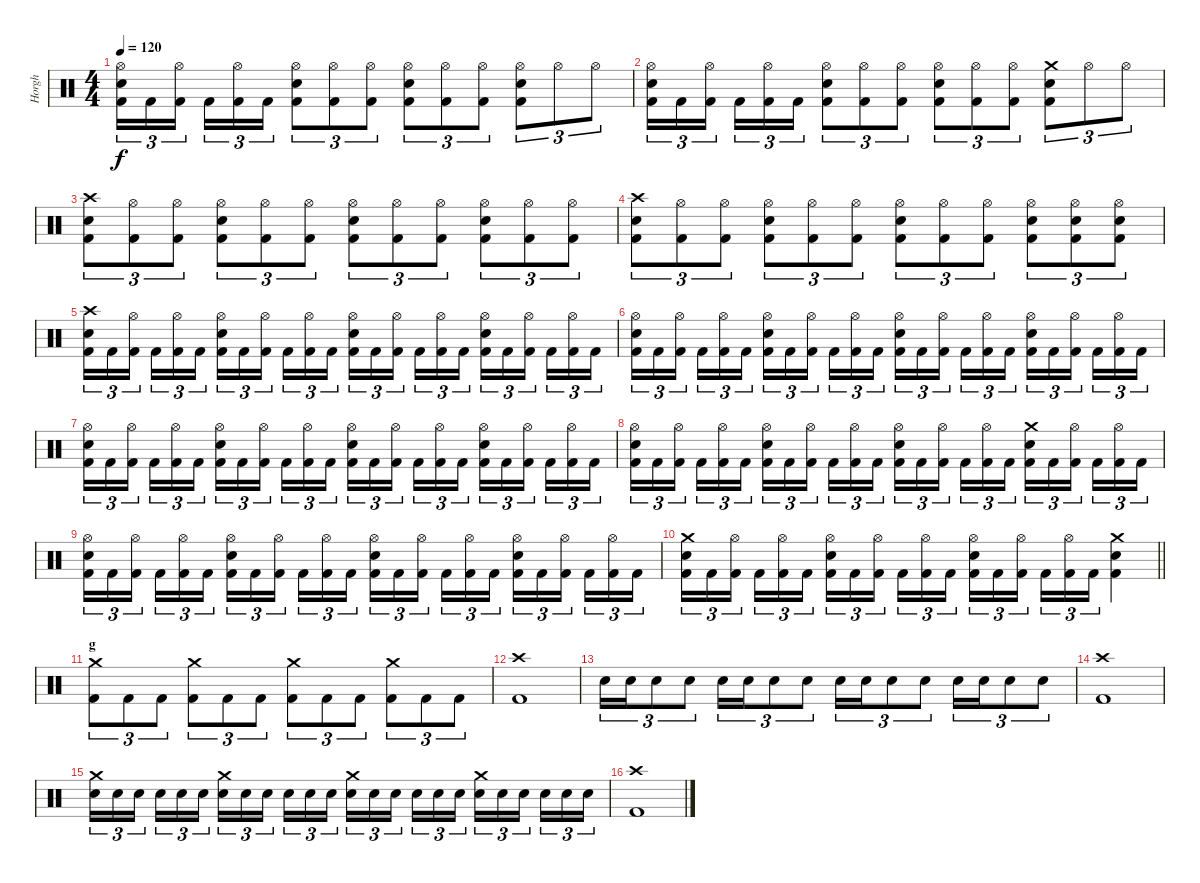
\track ("Horgh" "Horgh") {instrument percussion}
\staff {score}
\articulation defaults
\ts (4 4)
\tempo 120
\clef neutral
\ks c
("Hi-Hat (open)" "Electric Snare (hit)" "Kick (hit) 2").16{tu (3 2) dy f} "Kick (hit) 2".16{tu (3 2)} ("Hi-Hat (open)" "Kick (hit) 2").16{tu (3 2) beam splitsecondary} "Kick (hit) 2".16{tu (3 2)} ("Hi-Hat (open)" "Kick (hit) 2").16{tu (3 2)} "Kick (hit) 2".16{tu (3 2)} ("Hi-Hat (open)" "Electric Snare (hit)" "Kick (hit) 2").8{tu (3 2)} ("Hi-Hat (open)" "Kick (hit) 2").8{tu (3 2)} ("Hi-Hat (open)" "Kick (hit) 2").8{tu (3 2)} ("Hi-Hat (open)" "Electric Snare (hit)" "Kick (hit) 2").8{tu (3 2)} ("Hi-Hat (open)" "Kick (hit) 2").8{tu (3 2)} ("Hi-Hat (open)" "Kick (hit) 2").8{tu (3 2)} ("Hi-Hat (open)" "Electric Snare (hit)" "Kick (hit) 2").8{tu (3 2)} "Hi-Hat (open)".8{tu (3 2)} "Hi-Hat (open)".8{tu (3 2)} |
("Hi-Hat (open)" "Electric Snare (hit)" "Kick (hit) 2").16{tu (3 2)} "Kick (hit) 2".16{tu (3 2)} ("Hi-Hat (open)" "Kick (hit) 2").16{tu (3 2) beam splitsecondary} "Kick (hit) 2".16{tu (3 2)} ("Hi-Hat (open)" "Kick (hit) 2").16{tu (3 2)} "Kick (hit) 2".16{tu (3 2)} ("Hi-Hat (open)" "Electric Snare (hit)" "Kick (hit) 2").8{tu (3 2)} ("Hi-Hat (open)" "Kick (hit) 2").8{tu (3 2)} ("Hi-Hat (open)" "Kick (hit) 2").8{tu (3 2)} ("Hi-Hat (open)" "Electric Snare (hit)" "Kick (hit) 2").8{tu (3 2)} ("Hi-Hat (open)" "Kick (hit) 2").8{tu (3 2)} ("Hi-Hat (open)" "Kick (hit) 2").8{tu (3 2)} ("Crash medium (hit)" "Electric Snare (hit)" "Kick (hit) 2").8{tu (3 2)} "Hi-Hat (open)".8{tu (3 2)} "Hi-Hat (open)".8{tu (3 2)} |
("Crash high (hit)" "Electric Snare (hit)" "Kick (hit) 2").8{tu (3 2)} ("Hi-Hat (open)" "Kick (hit) 2").8{tu (3 2)} ("Hi-Hat (open)" "Kick (hit) 2").8{tu (3 2)} ("Hi-Hat (open)" "Electric Snare (hit)" "Kick (hit) 2").8{tu (3 2)} ("Hi-Hat (open)" "Kick (hit) 2").8{tu (3 2)} ("Hi-Hat (open)" "Kick (hit) 2").8{tu (3 2)} ("Hi-Hat (open)" "Electric Snare (hit)" "Kick (hit) 2").8{tu (3 2)} ("Hi-Hat (open)" "Kick (hit) 2").8{tu (3 2)} ("Hi-Hat (open)" "Kick (hit) 2").8{tu (3 2)} ("Hi-Hat (open)" "Electric Snare (hit)" "Kick (hit) 2").8{tu (3 2)} ("Hi-Hat (open)" "Kick (hit) 2").8{tu (3 2)} ("Hi-Hat (open)" "Kick (hit) 2").8{tu (3 2)} |
("Crash high (hit)" "Electric Snare (hit)" "Kick (hit) 2").8{tu (3 2)} ("Hi-Hat (open)" "Kick (hit) 2").8{tu (3 2)} ("Hi-Hat (open)" "Kick (hit) 2").8{tu (3 2)} ("Hi-Hat (open)" "Electric Snare (hit)" "Kick (hit) 2").8{tu (3 2)} ("Hi-Hat (open)" "Kick (hit) 2").8{tu (3 2)} ("Hi-Hat (open)" "Kick (hit) 2").8{tu (3 2)} ("Hi-Hat (open)" "Electric Snare (hit)" "Kick (hit) 2").8{tu (3 2)} ("Hi-Hat (open)" "Kick (hit) 2").8{tu (3 2)} ("Hi-Hat (open)" "Kick (hit) 2").8{tu (3 2)} ("Hi-Hat (open)" "Electric Snare (hit)" "Kick (hit) 2").8{tu (3 2)} ("Hi-Hat (open)" "Electric Snare (hit)" "Kick (hit) 2").8{tu (3 2)} ("Hi-Hat (open)" "Electric Snare (hit)" "Kick (hit) 2").8{tu (3 2)} |
("Crash high (hit)" "Electric Snare (hit)" "Kick (hit) 2").16{tu (3 2)} "Kick (hit) 2".16{tu (3 2)} ("Hi-Hat (open)" "Kick (hit) 2").16{tu (3 2) beam splitsecondary} "Kick (hit) 2".16{tu (3 2)} ("Hi-Hat (open)" "Kick (hit) 2").16{tu (3 2)} "Kick (hit) 2".16{tu (3 2)} ("Hi-Hat (open)" "Electric Snare (hit)" "Kick (hit) 2").16{tu (3 2)} "Kick (hit) 2".16{tu (3 2)} ("Hi-Hat (open)" "Kick (hit) 2").16{tu (3 2) beam splitsecondary} "Kick (hit) 2".16{tu (3 2)} ("Hi-Hat (open)" "Kick (hit) 2").16{tu (3 2)} "Kick (hit) 2".16{tu (3 2)} ("Hi-Hat (open)" "Electric Snare (hit)" "Kick (hit) 2").16{tu (3 2)} "Kick (hit) 2".16{tu (3 2)} ("Hi-Hat (open)" "Kick (hit) 2").16{tu (3 2) beam splitsecondary} "Kick (hit) 2".16{tu (3 2)} ("Hi-Hat (open)" "Kick (hit) 2").16{tu (3 2)} "Kick (hit) 2".16{tu (3 2)} ("Hi-Hat (open)" "Electric Snare (hit)" "Kick (hit) 2").16{tu (3 2)} "Kick (hit) 2".16{tu (3 2)} ("Hi-Hat (open)" "Kick (hit) 2").16{tu (3 2) beam splitsecondary} "Kick (hit) 2".16{tu (3 2)} ("Hi-Hat (open)" "Kick (hit) 2").16{tu (3 2)} "Kick (hit) 2".16{tu (3 2)} |
("Hi-Hat (open)" "Electric Snare (hit)" "Kick (hit) 2").16{tu (3 2)} "Kick (hit) 2".16{tu (3 2)} ("Hi-Hat (open)" "Kick (hit) 2").16{tu (3 2) beam splitsecondary} "Kick (hit) 2".16{tu (3 2)} ("Hi-Hat (open)" "Kick (hit) 2").16{tu (3 2)} "Kick (hit) 2".16{tu (3 2)} ("Hi-Hat (open)" "Electric Snare (hit)" "Kick (hit) 2").16{tu (3 2)} "Kick (hit) 2".16{tu (3 2)} ("Hi-Hat (open)" "Kick (hit) 2").16{tu (3 2) beam splitsecondary} "Kick (hit) 2".16{tu (3 2)} ("Hi-Hat (open)" "Kick (hit) 2").16{tu (3 2)} "Kick (hit) 2".16{tu (3 2)} ("Hi-Hat (open)" "Electric Snare (hit)" "Kick (hit) 2").16{tu (3 2)} "Kick (hit) 2".16{tu (3 2)} ("Hi-Hat (open)" "Kick (hit) 2").16{tu (3 2) beam splitsecondary} "Kick (hit) 2".16{tu (3 2)} ("Hi-Hat (open)" "Kick (hit) 2").16{tu (3 2)} "Kick (hit) 2".16{tu (3 2)} ("Hi-Hat (open)" "Electric Snare (hit)" "Kick (hit) 2").16{tu (3 2)} "Kick (hit) 2".16{tu (3 2)} ("Hi-Hat (open)" "Kick (hit) 2").16{tu (3 2) beam splitsecondary} "Kick (hit) 2".16{tu (3 2)} ("Hi-Hat (open)" "Kick (hit) 2").16{tu (3 2)} "Kick (hit) 2".16{tu (3 2)} |
("Hi-Hat (open)" "Electric Snare (hit)" "Kick (hit) 2").16{tu (3 2)} "Kick (hit) 2".16{tu (3 2)} ("Hi-Hat (open)" "Kick (hit) 2").16{tu (3 2) beam splitsecondary} "Kick (hit) 2".16{tu (3 2)} ("Hi-Hat (open)" "Kick (hit) 2").16{tu (3 2)} "Kick (hit) 2".16{tu (3 2)} ("Hi-Hat (open)" "Electric Snare (hit)" "Kick (hit) 2").16{tu (3 2)} "Kick (hit) 2".16{tu (3 2)} ("Hi-Hat (open)" "Kick (hit) 2").16{tu (3 2) beam splitsecondary} "Kick (hit) 2".16{tu (3 2)} ("Hi-Hat (open)" "Kick (hit) 2").16{tu (3 2)} "Kick (hit) 2".16{tu (3 2)} ("Hi-Hat (open)" "Electric Snare (hit)" "Kick (hit) 2").16{tu (3 2)} "Kick (hit) 2".16{tu (3 2)} ("Hi-Hat (open)" "Kick (hit) 2").16{tu (3 2) beam splitsecondary} "Kick (hit) 2".16{tu (3 2)} ("Hi-Hat (open)" "Kick (hit) 2").16{tu (3 2)} "Kick (hit) 2".16{tu (3 2)} ("Hi-Hat (open)" "Electric Snare (hit)" "Kick (hit) 2").16{tu (3 2)} "Kick (hit) 2".16{tu (3 2)} ("Hi-Hat (open)" "Kick (hit) 2").16{tu (3 2) beam splitsecondary} "Kick (hit) 2".16{tu (3 2)} ("Hi-Hat (open)" "Kick (hit) 2").16{tu (3 2)} "Kick (hit) 2".16{tu (3 2)} |
("Hi-Hat (open)" "Electric Snare (hit)" "Kick (hit) 2").16{tu (3 2)} "Kick (hit) 2".16{tu (3 2)} ("Hi-Hat (open)" "Kick (hit) 2").16{tu (3 2) beam splitsecondary} "Kick (hit) 2".16{tu (3 2)} ("Hi-Hat (open)" "Kick (hit) 2").16{tu (3 2)} "Kick (hit) 2".16{tu (3 2)} ("Hi-Hat (open)" "Electric Snare (hit)" "Kick (hit) 2").16{tu (3 2)} "Kick (hit) 2".16{tu (3 2)} ("Hi-Hat (open)" "Kick (hit) 2").16{tu (3 2) beam splitsecondary} "Kick (hit) 2".16{tu (3 2)} ("Hi-Hat (open)" "Kick (hit) 2").16{tu (3 2)} "Kick (hit) 2".16{tu (3 2)} ("Hi-Hat (open)" "Electric Snare (hit)" "Kick (hit) 2").16{tu (3 2)} "Kick (hit) 2".16{tu (3 2)} ("Hi-Hat (open)" "Kick (hit) 2").16{tu (3 2) beam splitsecondary} "Kick (hit) 2".16{tu (3 2)} ("Hi-Hat (open)" "Kick (hit) 2").16{tu (3 2)} "Kick (hit) 2".16{tu (3 2)} ("Crash medium (hit)" "Electric Snare (hit)" "Kick (hit) 2").16{tu (3 2)} "Kick (hit) 2".16{tu (3 2)} ("Hi-Hat (open)" "Kick (hit) 2").16{tu (3 2) beam splitsecondary} "Kick (hit) 2".16{tu (3 2)} ("Hi-Hat (open)" "Kick (hit) 2").16{tu (3 2)} "Kick (hit) 2".16{tu (3 2)} |
("Hi-Hat (open)" "Electric Snare (hit)" "Kick (hit) 2").16{tu (3 2)} "Kick (hit) 2".16{tu (3 2)} ("Hi-Hat (open)" "Kick (hit) 2").16{tu (3 2) beam splitsecondary} "Kick (hit) 2".16{tu (3 2)} ("Hi-Hat (open)" "Kick (hit) 2").16{tu (3 2)} "Kick (hit) 2".16{tu (3 2)} ("Hi-Hat (open)" "Electric Snare (hit)" "Kick (hit) 2").16{tu (3 2)} "Kick (hit) 2".16{tu (3 2)} ("Hi-Hat (open)" "Kick (hit) 2").16{tu (3 2) beam splitsecondary} "Kick (hit) 2".16{tu (3 2)} ("Hi-Hat (open)" "Kick (hit) 2").16{tu (3 2)} "Kick (hit) 2".16{tu (3 2)} ("Hi-Hat (open)" "Electric Snare (hit)" "Kick (hit) 2").16{tu (3 2)} "Kick (hit) 2".16{tu (3 2)} ("Hi-Hat (open)" "Kick (hit) 2").16{tu (3 2) beam splitsecondary} "Kick (hit) 2".16{tu (3 2)} ("Hi-Hat (open)" "Kick (hit) 2").16{tu (3 2)} "Kick (hit) 2".16{tu (3 2)} ("Hi-Hat (open)" "Electric Snare (hit)" "Kick (hit) 2").16{tu (3 2)} "Kick (hit) 2".16{tu (3 2)} ("Hi-Hat (open)" "Kick (hit) 2").16{tu (3 2) beam splitsecondary} "Kick (hit) 2".16{tu (3 2)} ("Hi-Hat (open)" "Kick (hit) 2").16{tu (3 2)} "Kick (hit) 2".16{tu (3 2)} |
\barLineRight lightlight
("Crash medium (hit)" "Electric Snare (hit)" "Kick (hit) 2").16{tu (3 2)} "Kick (hit) 2".16{tu (3 2)} ("Hi-Hat (open)" "Kick (hit) 2").16{tu (3 2) beam splitsecondary} "Kick (hit) 2".16{tu (3 2)} ("Hi-Hat (open)" "Kick (hit) 2").16{tu (3 2)} "Kick (hit) 2".16{tu (3 2)} ("Hi-Hat (open)" "Electric Snare (hit)" "Kick (hit) 2").16{tu (3 2)} "Kick (hit) 2".16{tu (3 2)} ("Hi-Hat (open)" "Kick (hit) 2").16{tu (3 2) beam splitsecondary} "Kick (hit) 2".16{tu (3 2)} ("Hi-Hat (open)" "Kick (hit) 2").16{tu (3 2)} "Kick (hit) 2".16{tu (3 2)} ("Hi-Hat (open)" "Electric Snare (hit)" "Kick (hit) 2").16{tu (3 2)} "Kick (hit) 2".16{tu (3 2)} ("Hi-Hat (open)" "Kick (hit) 2").16{tu (3 2) beam splitsecondary} "Kick (hit) 2".16{tu (3 2)} ("Hi-Hat (open)" "Kick (hit) 2").16{tu (3 2)} "Kick (hit) 2".16{tu (3 2)} ("Crash medium (hit)" "Electric Snare (hit)" "Kick (hit) 2").4 |
\section ("" "g")
("Crash medium (hit)" "Kick (hit) 2").8{tu (3 2)} "Kick (hit) 2".8{tu (3 2)} "Kick (hit) 2".8{tu (3 2)} ("Crash medium (hit)" "Kick (hit) 2").8{tu (3 2)} "Kick (hit) 2".8{tu (3 2)} "Kick (hit) 2".8{tu (3 2)} ("Crash medium (hit)" "Kick (hit) 2").8{tu (3 2)} "Kick (hit) 2".8{tu (3 2)} "Kick (hit) 2".8{tu (3 2)} ("Crash medium (hit)" "Kick (hit) 2").8{tu (3 2)} "Kick (hit) 2".8{tu (3 2)} "Kick (hit) 2".8{tu (3 2)} |
("Crash high (hit)" "Kick (hit) 2").1 |
"Electric Snare (hit)".16{tu (3 2)} "Electric Snare (hit)".16{tu (3 2)} "Electric Snare (hit)".8{tu (3 2)} "Electric Snare (hit)".8{tu (3 2)} "Electric Snare (hit)".16{tu (3 2)} "Electric Snare (hit)".16{tu (3 2)} "Electric Snare (hit)".8{tu (3 2)} "Electric Snare (hit)".8{tu (3 2)} "Electric Snare (hit)".16{tu (3 2)} "Electric Snare (hit)".16{tu (3 2)} "Electric Snare (hit)".8{tu (3 2)} "Electric Snare (hit)".8{tu (3 2)} "Electric Snare (hit)".16{tu (3 2)} "Electric Snare (hit)".16{tu (3 2)} "Electric Snare (hit)".8{tu (3 2)} "Electric Snare (hit)".8{tu (3 2)} |
("Crash high (hit)" "Kick (hit) 2").1 |
("Crash medium (hit)" "Electric Snare (hit)").16{tu (3 2)} "Electric Snare (hit)".16{tu (3 2)} "Electric Snare (hit)".16{tu (3 2) beam splitsecondary} "Electric Snare (hit)".16{tu (3 2)} "Electric Snare (hit)".16{tu (3 2)} "Electric Snare (hit)".16{tu (3 2)} ("Crash medium (hit)" "Electric Snare (hit)").16{tu (3 2)} "Electric Snare (hit)".16{tu (3 2)} "Electric Snare (hit)".16{tu (3 2) beam splitsecondary} "Electric Snare (hit)".16{tu (3 2)} "Electric Snare (hit)".16{tu (3 2)} "Electric Snare (hit)".16{tu (3 2)} ("Crash medium (hit)" "Electric Snare (hit)").16{tu (3 2)} "Electric Snare (hit)".16{tu (3 2)} "Electric Snare (hit)".16{tu (3 2) beam splitsecondary} "Electric Snare (hit)".16{tu (3 2)} "Electric Snare (hit)".16{tu (3 2)} "Electric Snare (hit)".16{tu (3 2)} ("Crash medium (hit)" "Electric Snare (hit)").16{tu (3 2)} "Electric Snare (hit)".16{tu (3 2)} "Electric Snare (hit)".16{tu (3 2) beam splitsecondary} "Electric Snare (hit)".16{tu (3 2)} "Electric Snare (hit)".16{tu (3 2)} "Electric Snare (hit)".16{tu (3 2)} |
("Crash high (hit)" "Kick (hit) 2").1
